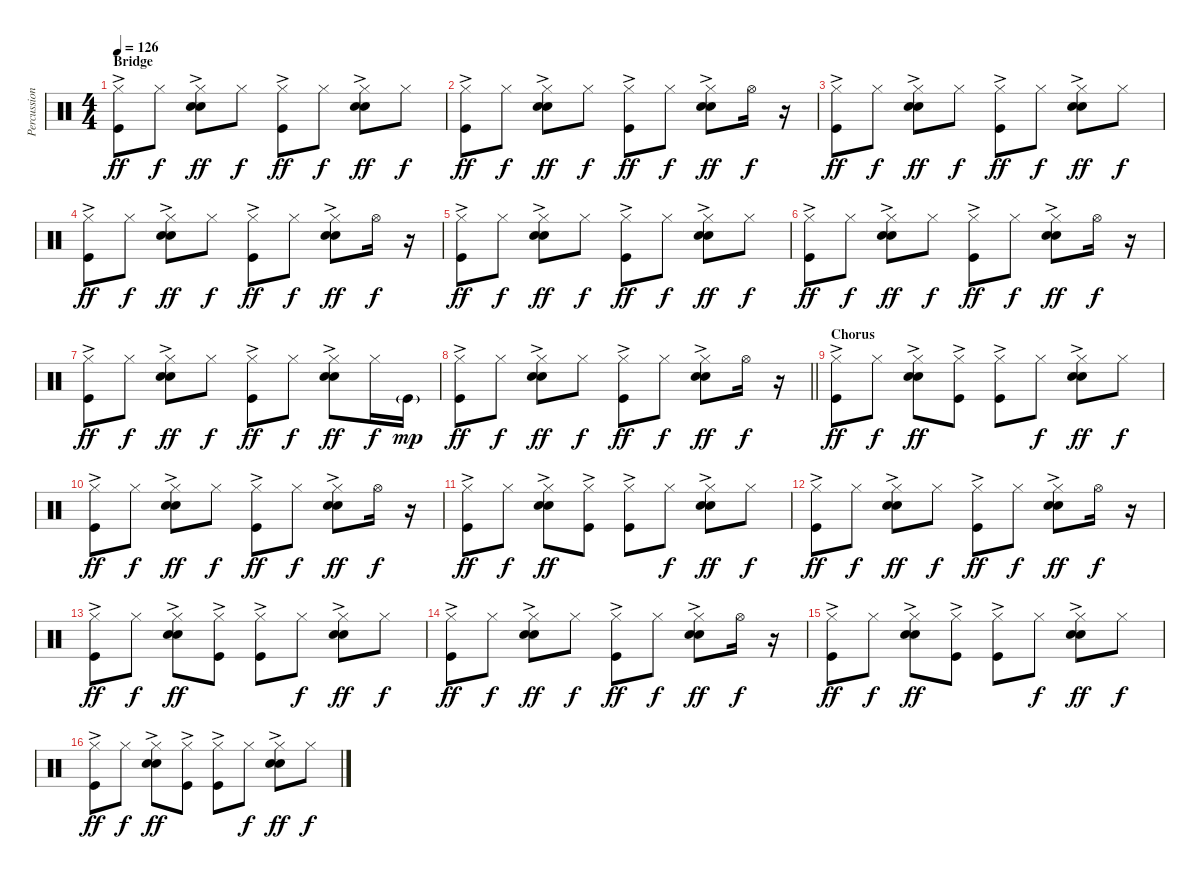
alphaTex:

\track ("Percussion" "Percussion") {instrument percussion}
\staff {score}
\articulation defaults
\ts (4 4)
\section ("" "Bridge")
\tempo 126
\clef neutral
\ks c
("Hi-Hat (closed)" "Kick (hit)"{ac}).8{dy ff} "Hi-Hat (closed)".8{dy f} ("Hi-Hat (closed)" "Hand Clap (hit)"{ac} "Snare (hit) 2").8{dy ff} "Hi-Hat (closed)".8{dy f} ("Hi-Hat (closed)" "Kick (hit)"{ac}).8{dy ff} "Hi-Hat (closed)".8{dy f} ("Hi-Hat (closed)" "Hand Clap (hit)"{ac} "Snare (hit) 2").8{dy ff} "Hi-Hat (closed)".8{dy f} |
("Hi-Hat (closed)" "Kick (hit)"{ac}).8{dy ff} "Hi-Hat (closed)".8{dy f} ("Hi-Hat (closed)" "Hand Clap (hit)"{ac} "Snare (hit) 2").8{dy ff} "Hi-Hat (closed)".8{dy f} ("Hi-Hat (closed)" "Kick (hit)"{ac}).8{dy ff} "Hi-Hat (closed)".8{dy f} ("Hi-Hat (closed)" "Hand Clap (hit)"{ac} "Snare (hit) 2").8{dy ff} "Hi-Hat (open)".16{dy f} r.16 |
("Hi-Hat (closed)" "Kick (hit)"{ac}).8{dy ff} "Hi-Hat (closed)".8{dy f} ("Hi-Hat (closed)" "Hand Clap (hit)"{ac} "Snare (hit) 2").8{dy ff} "Hi-Hat (closed)".8{dy f} ("Hi-Hat (closed)" "Kick (hit)"{ac}).8{dy ff} "Hi-Hat (closed)".8{dy f} ("Hi-Hat (closed)" "Hand Clap (hit)"{ac} "Snare (hit) 2").8{dy ff} "Hi-Hat (closed)".8{dy f} |
("Hi-Hat (closed)" "Kick (hit)"{ac}).8{dy ff} "Hi-Hat (closed)".8{dy f} ("Hi-Hat (closed)" "Hand Clap (hit)"{ac} "Snare (hit) 2").8{dy ff} "Hi-Hat (closed)".8{dy f} ("Hi-Hat (closed)" "Kick (hit)"{ac}).8{dy ff} "Hi-Hat (closed)".8{dy f} ("Hi-Hat (closed)" "Hand Clap (hit)"{ac} "Snare (hit) 2").8{dy ff} "Hi-Hat (open)".16{dy f} r.16 |
("Hi-Hat (closed)" "Kick (hit)"{ac}).8{dy ff} "Hi-Hat (closed)".8{dy f} ("Hi-Hat (closed)" "Hand Clap (hit)"{ac} "Snare (hit) 2").8{dy ff} "Hi-Hat (closed)".8{dy f} ("Hi-Hat (closed)" "Kick (hit)"{ac}).8{dy ff} "Hi-Hat (closed)".8{dy f} ("Hi-Hat (closed)" "Hand Clap (hit)"{ac} "Snare (hit) 2").8{dy ff} "Hi-Hat (closed)".8{dy f} |
("Hi-Hat (closed)" "Kick (hit)"{ac}).8{dy ff} "Hi-Hat (closed)".8{dy f} ("Hi-Hat (closed)" "Hand Clap (hit)"{ac} "Snare (hit) 2").8{dy ff} "Hi-Hat (closed)".8{dy f} ("Hi-Hat (closed)" "Kick (hit)"{ac}).8{dy ff} "Hi-Hat (closed)".8{dy f} ("Hi-Hat (closed)" "Hand Clap (hit)"{ac} "Snare (hit) 2").8{dy ff} "Hi-Hat (open)".16{dy f} r.16 |
("Hi-Hat (closed)" "Kick (hit)"{ac}).8{dy ff} "Hi-Hat (closed)".8{dy f} ("Hi-Hat (closed)" "Hand Clap (hit)"{ac} "Snare (hit) 2").8{dy ff} "Hi-Hat (closed)".8{dy f} ("Hi-Hat (closed)" "Kick (hit)"{ac}).8{dy ff} "Hi-Hat (closed)".8{dy f} ("Hi-Hat (closed)" "Hand Clap (hit)"{ac} "Snare (hit) 2").8{dy ff} "Hi-Hat (closed)".16{dy f} "Kick (hit)"{g}.16{dy mp} |
\barLineRight lightlight
("Hi-Hat (closed)" "Kick (hit)"{ac}).8{dy ff} "Hi-Hat (closed)".8{dy f} ("Hi-Hat (closed)" "Hand Clap (hit)"{ac} "Snare (hit) 2").8{dy ff} "Hi-Hat (closed)".8{dy f} ("Hi-Hat (closed)" "Kick (hit)"{ac}).8{dy ff} "Hi-Hat (closed)".8{dy f} ("Hi-Hat (closed)" "Hand Clap (hit)"{ac} "Snare (hit) 2").8{dy ff} "Hi-Hat (open)".16{dy f} r.16 |
\section ("" "Chorus")
("Hi-Hat (closed)" "Kick (hit)"{ac}).8{dy ff} "Hi-Hat (closed)".8{dy f} ("Hi-Hat (closed)" "Hand Clap (hit)"{ac} "Snare (hit) 2"{ac}).8{dy ff} ("Hi-Hat (closed)" "Kick (hit)"{ac}).8 ("Hi-Hat (closed)" "Kick (hit)"{ac}).8 "Hi-Hat (closed)".8{dy f} ("Hi-Hat (closed)" "Hand Clap (hit)"{ac} "Snare (hit) 2"{ac}).8{dy ff} "Hi-Hat (closed)".8{dy f} |
("Hi-Hat (closed)" "Kick (hit)"{ac}).8{dy ff} "Hi-Hat (closed)".8{dy f} ("Hi-Hat (closed)" "Hand Clap (hit)"{ac} "Snare (hit) 2"{ac}).8{dy ff} "Hi-Hat (closed)".8{dy f} ("Hi-Hat (closed)" "Kick (hit)"{ac}).8{dy ff} "Hi-Hat (closed)".8{dy f} ("Hi-Hat (closed)" "Hand Clap (hit)"{ac} "Snare (hit) 2"{ac}).8{dy ff} "Hi-Hat (open)".16{dy f} r.16 |
("Hi-Hat (closed)" "Kick (hit)"{ac}).8{dy ff} "Hi-Hat (closed)".8{dy f} ("Hi-Hat (closed)" "Hand Clap (hit)"{ac} "Snare (hit) 2"{ac}).8{dy ff} ("Hi-Hat (closed)" "Kick (hit)"{ac}).8 ("Hi-Hat (closed)" "Kick (hit)"{ac}).8 "Hi-Hat (closed)".8{dy f} ("Hi-Hat (closed)" "Hand Clap (hit)"{ac} "Snare (hit) 2"{ac}).8{dy ff} "Hi-Hat (closed)".8{dy f} |
("Hi-Hat (closed)" "Kick (hit)"{ac}).8{dy ff} "Hi-Hat (closed)".8{dy f} ("Hi-Hat (closed)" "Hand Clap (hit)"{ac} "Snare (hit) 2"{ac}).8{dy ff} "Hi-Hat (closed)".8{dy f} ("Hi-Hat (closed)" "Kick (hit)"{ac}).8{dy ff} "Hi-Hat (closed)".8{dy f} ("Hi-Hat (closed)" "Hand Clap (hit)"{ac} "Snare (hit) 2"{ac}).8{dy ff} "Hi-Hat (open)".16{dy f} r.16 |
("Hi-Hat (closed)" "Kick (hit)"{ac}).8{dy ff} "Hi-Hat (closed)".8{dy f} ("Hi-Hat (closed)" "Hand Clap (hit)"{ac} "Snare (hit) 2"{ac}).8{dy ff} ("Hi-Hat (closed)" "Kick (hit)"{ac}).8 ("Hi-Hat (closed)" "Kick (hit)"{ac}).8 "Hi-Hat (closed)".8{dy f} ("Hi-Hat (closed)" "Hand Clap (hit)"{ac} "Snare (hit) 2"{ac}).8{dy ff} "Hi-Hat (closed)".8{dy f} |
("Hi-Hat (closed)" "Kick (hit)"{ac}).8{dy ff} "Hi-Hat (closed)".8{dy f} ("Hi-Hat (closed)" "Hand Clap (hit)"{ac} "Snare (hit) 2"{ac}).8{dy ff} "Hi-Hat (closed)".8{dy f} ("Hi-Hat (closed)" "Kick (hit)"{ac}).8{dy ff} "Hi-Hat (closed)".8{dy f} ("Hi-Hat (closed)" "Hand Clap (hit)"{ac} "Snare (hit) 2"{ac}).8{dy ff} "Hi-Hat (open)".16{dy f} r.16 |
("Hi-Hat (closed)" "Kick (hit)"{ac}).8{dy ff} "Hi-Hat (closed)".8{dy f} ("Hi-Hat (closed)" "Hand Clap (hit)"{ac} "Snare (hit) 2"{ac}).8{dy ff} ("Hi-Hat (closed)" "Kick (hit)"{ac}).8 ("Hi-Hat (closed)" "Kick (hit)"{ac}).8 "Hi-Hat (closed)".8{dy f} ("Hi-Hat (closed)" "Hand Clap (hit)"{ac} "Snare (hit) 2"{ac}).8{dy ff} "Hi-Hat (closed)".8{dy f} |
("Hi-Hat (closed)" "Kick (hit)"{ac}).8{dy ff} "Hi-Hat (closed)".8{dy f} ("Hi-Hat (closed)" "Hand Clap (hit)"{ac} "Snare (hit) 2"{ac}).8{dy ff} ("Hi-Hat (closed)" "Kick (hit)"{ac}).8 ("Hi-Hat (closed)" "Kick (hit)"{ac}).8 "Hi-Hat (closed)".8{dy f} ("Hi-Hat (closed)" "Hand Clap (hit)"{ac} "Snare (hit) 2"{ac}).8{dy ff} "Hi-Hat (closed)".8{dy f}
